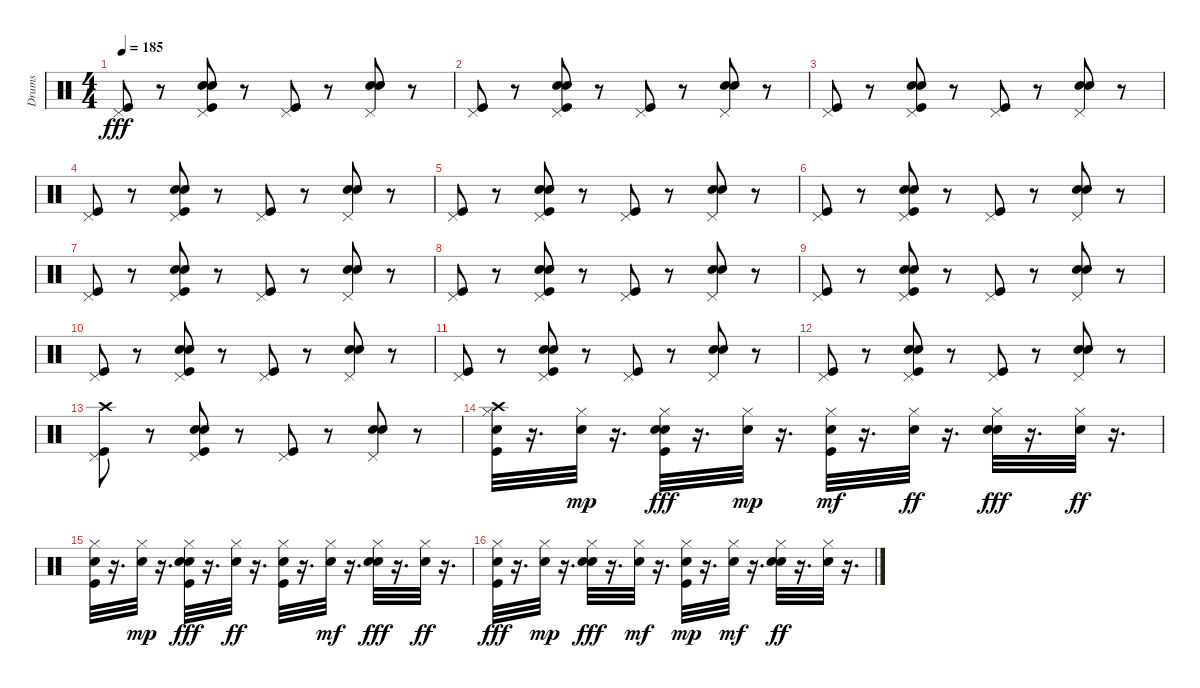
\track ("Drums" "Drums") {instrument percussion}
\staff {score}
\articulation defaults
\ts (4 4)
\tempo 185
\clef neutral
\ks c
("Pedal Hi-Hat (hit)" "Kick (hit)").8{dy fff} r.8 ("Pedal Hi-Hat (hit)" "Kick (hit)" "Hand Clap (hit)" "Snare (hit) 2").8 r.8 ("Pedal Hi-Hat (hit)" "Kick (hit)").8 r.8 ("Snare (hit) 2" "Pedal Hi-Hat (hit)" "Hand Clap (hit)").8 r.8 |
("Pedal Hi-Hat (hit)" "Kick (hit)").8 r.8 ("Pedal Hi-Hat (hit)" "Kick (hit)" "Hand Clap (hit)" "Snare (hit) 2").8 r.8 ("Pedal Hi-Hat (hit)" "Kick (hit)").8 r.8 ("Snare (hit) 2" "Pedal Hi-Hat (hit)" "Hand Clap (hit)").8 r.8 |
("Pedal Hi-Hat (hit)" "Kick (hit)").8 r.8 ("Pedal Hi-Hat (hit)" "Kick (hit)" "Hand Clap (hit)" "Snare (hit) 2").8 r.8 ("Pedal Hi-Hat (hit)" "Kick (hit)").8 r.8 ("Snare (hit) 2" "Pedal Hi-Hat (hit)" "Hand Clap (hit)").8 r.8 |
("Pedal Hi-Hat (hit)" "Kick (hit)").8 r.8 ("Pedal Hi-Hat (hit)" "Kick (hit)" "Hand Clap (hit)" "Snare (hit) 2").8 r.8 ("Pedal Hi-Hat (hit)" "Kick (hit)").8 r.8 ("Snare (hit) 2" "Pedal Hi-Hat (hit)" "Hand Clap (hit)").8 r.8 |
("Pedal Hi-Hat (hit)" "Kick (hit)").8 r.8 ("Pedal Hi-Hat (hit)" "Kick (hit)" "Hand Clap (hit)" "Snare (hit) 2").8 r.8 ("Pedal Hi-Hat (hit)" "Kick (hit)").8 r.8 ("Snare (hit) 2" "Pedal Hi-Hat (hit)" "Hand Clap (hit)").8 r.8 |
("Pedal Hi-Hat (hit)" "Kick (hit)").8 r.8 ("Pedal Hi-Hat (hit)" "Kick (hit)" "Hand Clap (hit)" "Snare (hit) 2").8 r.8 ("Pedal Hi-Hat (hit)" "Kick (hit)").8 r.8 ("Snare (hit) 2" "Pedal Hi-Hat (hit)" "Hand Clap (hit)").8 r.8 |
("Pedal Hi-Hat (hit)" "Kick (hit)").8 r.8 ("Pedal Hi-Hat (hit)" "Kick (hit)" "Hand Clap (hit)" "Snare (hit) 2").8 r.8 ("Pedal Hi-Hat (hit)" "Kick (hit)").8 r.8 ("Snare (hit) 2" "Pedal Hi-Hat (hit)" "Hand Clap (hit)").8 r.8 |
("Pedal Hi-Hat (hit)" "Kick (hit)").8 r.8 ("Pedal Hi-Hat (hit)" "Kick (hit)" "Hand Clap (hit)" "Snare (hit) 2").8 r.8 ("Pedal Hi-Hat (hit)" "Kick (hit)").8 r.8 ("Snare (hit) 2" "Pedal Hi-Hat (hit)" "Hand Clap (hit)").8 r.8 |
("Pedal Hi-Hat (hit)" "Kick (hit)").8 r.8 ("Pedal Hi-Hat (hit)" "Kick (hit)" "Hand Clap (hit)" "Snare (hit) 2").8 r.8 ("Pedal Hi-Hat (hit)" "Kick (hit)").8 r.8 ("Snare (hit) 2" "Pedal Hi-Hat (hit)" "Hand Clap (hit)").8 r.8 |
("Pedal Hi-Hat (hit)" "Kick (hit)").8 r.8 ("Pedal Hi-Hat (hit)" "Kick (hit)" "Hand Clap (hit)" "Snare (hit) 2").8 r.8 ("Pedal Hi-Hat (hit)" "Kick (hit)").8 r.8 ("Snare (hit) 2" "Pedal Hi-Hat (hit)" "Hand Clap (hit)").8 r.8 |
("Pedal Hi-Hat (hit)" "Kick (hit)").8 r.8 ("Pedal Hi-Hat (hit)" "Kick (hit)" "Hand Clap (hit)" "Snare (hit) 2").8 r.8 ("Pedal Hi-Hat (hit)" "Kick (hit)").8 r.8 ("Snare (hit) 2" "Pedal Hi-Hat (hit)" "Hand Clap (hit)").8 r.8 |
("Pedal Hi-Hat (hit)" "Kick (hit)").8 r.8 ("Pedal Hi-Hat (hit)" "Kick (hit)" "Hand Clap (hit)" "Snare (hit) 2").8 r.8 ("Pedal Hi-Hat (hit)" "Kick (hit)").8 r.8 ("Snare (hit) 2" "Pedal Hi-Hat (hit)" "Hand Clap (hit)").8 r.8 |
("Pedal Hi-Hat (hit)" "Crash high (hit)" "Kick (hit)").8 r.8 ("Pedal Hi-Hat (hit)" "Kick (hit)" "Hand Clap (hit)" "Snare (hit) 2").8 r.8 ("Pedal Hi-Hat (hit)" "Kick (hit)").8 r.8 ("Snare (hit) 2" "Pedal Hi-Hat (hit)" "Hand Clap (hit)").8 r.8 |
("Hi-Hat (closed)" "Crash high (hit)" "Snare (hit) 2" "Kick (hit)").32 r.16{d} ("Hi-Hat (closed)" "Snare (hit) 2").32{dy mp} r.16{d} ("Snare (hit) 2" "Kick (hit)" "Hi-Hat (closed)" "Hand Clap (hit)").32{dy fff} r.16{d} ("Hi-Hat (closed)" "Snare (hit) 2").32{dy mp} r.16{d} ("Hi-Hat (closed)" "Kick (hit)" "Snare (hit) 2").32{dy mf} r.16{d} ("Snare (hit) 2" "Hi-Hat (closed)").32{dy ff} r.16{d} ("Hand Clap (hit)" "Snare (hit) 2" "Hi-Hat (closed)").32{dy fff} r.16{d} ("Snare (hit) 2" "Hi-Hat (closed)").32{dy ff} r.16{d} |
("Kick (hit)" "Snare (hit) 2" "Hi-Hat (closed)").32 r.16{d} ("Hi-Hat (closed)" "Snare (hit) 2").32{dy mp} r.16{d} ("Kick (hit)" "Hand Clap (hit)" "Hi-Hat (closed)" "Snare (hit) 2").32{dy fff} r.16{d} ("Snare (hit) 2" "Hi-Hat (closed)").32{dy ff} r.16{d} ("Kick (hit)" "Snare (hit) 2" "Hi-Hat (closed)").32 r.16{d} ("Hi-Hat (closed)" "Snare (hit) 2").32{dy mf} r.16{d} ("Hand Clap (hit)" "Hi-Hat (closed)" "Snare (hit) 2").32{dy fff} r.16{d} ("Snare (hit) 2" "Hi-Hat (closed)").32{dy ff} r.16{d} |
("Snare (hit) 2" "Hi-Hat (closed)" "Kick (hit)").32{dy fff} r.16{d} ("Hi-Hat (closed)" "Snare (hit) 2").32{dy mp} r.16{d} ("Hand Clap (hit)" "Hi-Hat (closed)" "Snare (hit) 2").32{dy fff} r.16{d} ("Hi-Hat (closed)" "Snare (hit) 2").32{dy mf} r.16{d} ("Kick (hit)" "Hi-Hat (closed)" "Snare (hit) 2").32{dy mp} r.16{d} ("Hi-Hat (closed)" "Snare (hit) 2").32{dy mf} r.16{d} ("Snare (hit) 2" "Hand Clap (hit)" "Hi-Hat (closed)").32{dy ff} r.16{d} ("Snare (hit) 2" "Hi-Hat (closed)").32 r.16{d}
